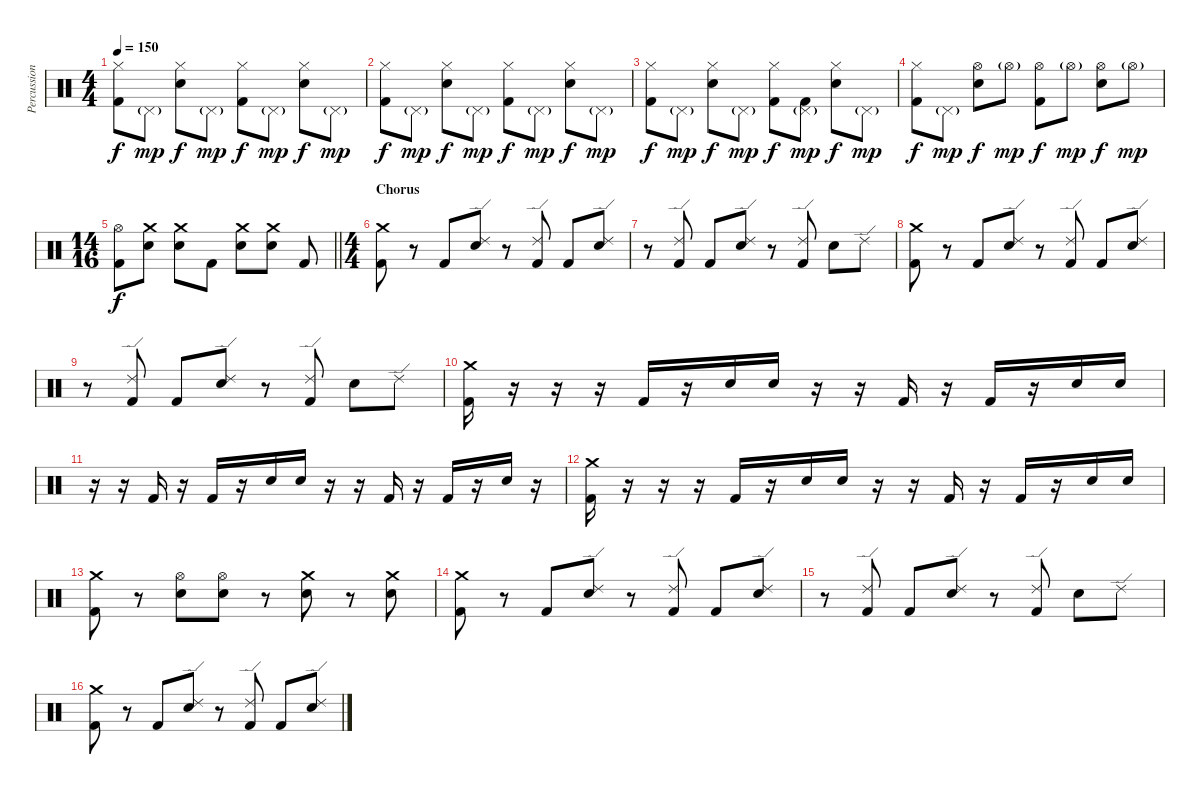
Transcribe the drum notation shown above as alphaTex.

\track ("Percussion" "Percussion") {instrument percussion}
\staff {score}
\articulation defaults
\ts (4 4)
\tempo 150
\clef neutral
\ks c
("Hi-Hat (closed)" "Kick (hit) 2").8{dy f} "Pedal Hi-Hat (hit)"{g}.8{dy mp} ("Hi-Hat (closed)" "Electric Snare (hit)").8{dy f} "Pedal Hi-Hat (hit)"{g}.8{dy mp} ("Hi-Hat (closed)" "Kick (hit) 2").8{dy f} "Pedal Hi-Hat (hit)"{g}.8{dy mp} ("Hi-Hat (closed)" "Electric Snare (hit)").8{dy f} "Pedal Hi-Hat (hit)"{g}.8{dy mp} |
("Hi-Hat (closed)" "Kick (hit) 2").8{dy f} "Pedal Hi-Hat (hit)"{g}.8{dy mp} ("Hi-Hat (closed)" "Electric Snare (hit)").8{dy f} "Pedal Hi-Hat (hit)"{g}.8{dy mp} ("Hi-Hat (closed)" "Kick (hit) 2").8{dy f} "Pedal Hi-Hat (hit)"{g}.8{dy mp} ("Hi-Hat (closed)" "Electric Snare (hit)").8{dy f} "Pedal Hi-Hat (hit)"{g}.8{dy mp} |
("Hi-Hat (closed)" "Kick (hit) 2").8{dy f} "Pedal Hi-Hat (hit)"{g}.8{dy mp} ("Hi-Hat (closed)" "Electric Snare (hit)").8{dy f} "Pedal Hi-Hat (hit)"{g}.8{dy mp} ("Hi-Hat (closed)" "Kick (hit) 2").8{dy f} ("Pedal Hi-Hat (hit)"{g} "Kick (hit) 2").8{dy mp} ("Hi-Hat (closed)" "Electric Snare (hit)").8{dy f} "Pedal Hi-Hat (hit)"{g}.8{dy mp} |
("Hi-Hat (closed)" "Kick (hit) 2").8{dy f} "Pedal Hi-Hat (hit)"{g}.8{dy mp} ("Hi-Hat (open)" "Electric Snare (hit)").8{dy f} "Hi-Hat (open)"{g}.8{dy mp} ("Hi-Hat (open)" "Kick (hit) 2").8{dy f} "Hi-Hat (open)"{g}.8{dy mp} ("Hi-Hat (open)" "Electric Snare (hit)").8{dy f} "Hi-Hat (open)"{g}.8{dy mp} |
\ts (14 16)
\barLineRight lightlight
("Hi-Hat (open)" "Kick (hit) 2").8{dy f} ("Crash medium (hit)" "Electric Snare (hit)").8 ("Crash medium (hit)" "Electric Snare (hit)").8 "Kick (hit) 2".8 ("Crash medium (hit)" "Electric Snare (hit)").8 ("Crash medium (hit)" "Electric Snare (hit)").8 "Kick (hit) 2".8 |
\ts (4 4)
\section ("" "Chorus")
("Crash medium (hit)" "Kick (hit) 2").8 r.8 "Kick (hit) 2".8 ("Ride (edge) 2" "Electric Snare (hit)").8 r.8 ("Ride (edge) 2" "Kick (hit) 2").8 "Kick (hit) 2".8 ("Ride (edge) 2" "Electric Snare (hit)").8 |
r.8 ("Ride (edge) 2" "Kick (hit) 2").8 "Kick (hit) 2".8 ("Ride (edge) 2" "Electric Snare (hit)").8 r.8 ("Ride (edge) 2" "Kick (hit) 2").8 "Electric Snare (hit)".8 "Ride (edge) 2".8 |
("Crash medium (hit)" "Kick (hit) 2").8 r.8 "Kick (hit) 2".8 ("Ride (edge) 2" "Electric Snare (hit)").8 r.8 ("Ride (edge) 2" "Kick (hit) 2").8 "Kick (hit) 2".8 ("Ride (edge) 2" "Electric Snare (hit)").8 |
r.8 ("Ride (edge) 2" "Kick (hit) 2").8 "Kick (hit) 2".8 ("Ride (edge) 2" "Electric Snare (hit)").8 r.8 ("Ride (edge) 2" "Kick (hit) 2").8 "Electric Snare (hit)".8 "Ride (edge) 2".8 |
("Crash medium (hit)" "Kick (hit) 2").16 r.16 r.16 r.16 "Kick (hit) 2".16 r.16 "Electric Snare (hit)".16 "Electric Snare (hit)".16 r.16 r.16 "Kick (hit) 2".16 r.16 "Kick (hit) 2".16 r.16 "Electric Snare (hit)".16 "Electric Snare (hit)".16 |
r.16 r.16 "Kick (hit) 2".16 r.16 "Kick (hit) 2".16 r.16 "Electric Snare (hit)".16 "Electric Snare (hit)".16 r.16 r.16 "Kick (hit) 2".16 r.16 "Kick (hit) 2".16 r.16 "Electric Snare (hit)".16 r.16 |
("Crash medium (hit)" "Kick (hit) 2").16 r.16 r.16 r.16 "Kick (hit) 2".16 r.16 "Electric Snare (hit)".16 "Electric Snare (hit)".16 r.16 r.16 "Kick (hit) 2".16 r.16 "Kick (hit) 2".16 r.16 "Electric Snare (hit)".16 "Electric Snare (hit)".16 |
("Crash medium (hit)" "Kick (hit) 2").8 r.8 ("Hi-Hat (open)" "Electric Snare (hit)").8 ("Hi-Hat (open)" "Electric Snare (hit)").8 r.8 ("Crash medium (hit)" "Electric Snare (hit)").8 r.8 ("Crash medium (hit)" "Electric Snare (hit)").8 |
("Crash medium (hit)" "Kick (hit) 2").8 r.8 "Kick (hit) 2".8 ("Ride (edge) 2" "Electric Snare (hit)").8 r.8 ("Ride (edge) 2" "Kick (hit) 2").8 "Kick (hit) 2".8 ("Ride (edge) 2" "Electric Snare (hit)").8 |
r.8 ("Ride (edge) 2" "Kick (hit) 2").8 "Kick (hit) 2".8 ("Ride (edge) 2" "Electric Snare (hit)").8 r.8 ("Ride (edge) 2" "Kick (hit) 2").8 "Electric Snare (hit)".8 "Ride (edge) 2".8 |
("Crash medium (hit)" "Kick (hit) 2").8 r.8 "Kick (hit) 2".8 ("Ride (edge) 2" "Electric Snare (hit)").8 r.8 ("Ride (edge) 2" "Kick (hit) 2").8 "Kick (hit) 2".8 ("Ride (edge) 2" "Electric Snare (hit)").8
